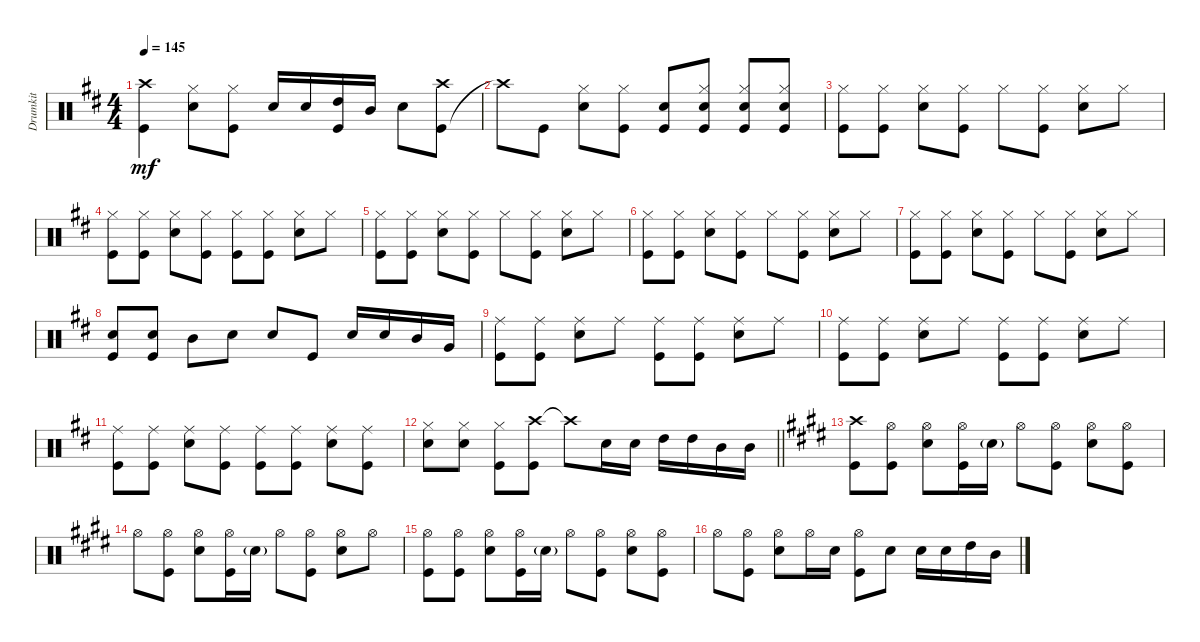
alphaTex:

\track ("Drumkit" "Drumkit") {instrument percussion}
\staff {score}
\articulation defaults
\ts (4 4)
\tempo 145
\clef neutral
\ks d
("Crash high (hit)" "Kick (hit)").4{dy mf} ("Hi-Hat (closed)" "Snare (hit) 2").8 ("Hi-Hat (closed)" "Kick (hit)").8 "Snare (hit) 2".16 "Snare (hit) 2".16 ("High Tom (hit)" "Kick (hit)").16 "Mid Tom (hit)".16 "Snare (hit) 2".8 ("Kick (hit)" "Crash high (hit)").8 |
"Crash high (hit)"{t}.8 "Kick (hit)".8 ("Snare (hit) 2" "Hi-Hat (closed)").8 ("Hi-Hat (closed)" "Kick (hit)").8 ("Kick (hit)" "Snare (hit) 2").8 ("Kick (hit)" "Hi-Hat (closed)" "Snare (hit) 2").8 ("Kick (hit)" "Hi-Hat (closed)" "Snare (hit) 2").8 ("Kick (hit)" "Snare (hit) 2" "Hi-Hat (closed)").8 |
("Hi-Hat (closed)" "Kick (hit)").8 ("Hi-Hat (closed)" "Kick (hit)").8 ("Hi-Hat (closed)" "Snare (hit) 2").8 ("Hi-Hat (closed)" "Kick (hit)").8 "Hi-Hat (closed)".8 ("Hi-Hat (closed)" "Kick (hit)").8 ("Hi-Hat (closed)" "Snare (hit) 2").8 "Hi-Hat (closed)".8 |
("Hi-Hat (closed)" "Kick (hit)").8 ("Hi-Hat (closed)" "Kick (hit)").8 ("Hi-Hat (closed)" "Snare (hit) 2").8 ("Hi-Hat (closed)" "Kick (hit)").8 ("Hi-Hat (closed)" "Kick (hit)").8 ("Hi-Hat (closed)" "Kick (hit)").8 ("Hi-Hat (closed)" "Snare (hit) 2").8 "Hi-Hat (closed)".8 |
("Hi-Hat (closed)" "Kick (hit)").8 ("Hi-Hat (closed)" "Kick (hit)").8 ("Hi-Hat (closed)" "Snare (hit) 2").8 ("Hi-Hat (closed)" "Kick (hit)").8 "Hi-Hat (closed)".8 ("Hi-Hat (closed)" "Kick (hit)").8 ("Hi-Hat (closed)" "Snare (hit) 2").8 "Hi-Hat (closed)".8 |
("Hi-Hat (closed)" "Kick (hit)").8 ("Hi-Hat (closed)" "Kick (hit)").8 ("Hi-Hat (closed)" "Snare (hit) 2").8 ("Hi-Hat (closed)" "Kick (hit)").8 "Hi-Hat (closed)".8 ("Hi-Hat (closed)" "Kick (hit)").8 ("Hi-Hat (closed)" "Snare (hit) 2").8 "Hi-Hat (closed)".8 |
("Hi-Hat (closed)" "Kick (hit)").8 ("Hi-Hat (closed)" "Kick (hit)").8 ("Hi-Hat (closed)" "Snare (hit) 2").8 ("Hi-Hat (closed)" "Kick (hit)").8 "Hi-Hat (closed)".8 ("Hi-Hat (closed)" "Kick (hit)").8 ("Hi-Hat (closed)" "Snare (hit) 2").8 "Hi-Hat (closed)".8 |
("Snare (hit) 2" "Kick (hit)").8 ("Snare (hit) 2" "Kick (hit)").8 "Mid Tom (hit)".8 "Snare (hit) 2".8 "Snare (hit) 2".8 "Kick (hit)".8 "Snare (hit) 2".16 "Snare (hit) 2".16 "Mid Tom (hit)".16 "Very Low Tom (hit)".16 |
("Kick (hit)" "Ride (middle)").8 ("Kick (hit)" "Ride (middle)").8 ("Snare (hit) 2" "Ride (middle)").8 "Ride (middle)".8 ("Kick (hit)" "Ride (middle)").8 ("Kick (hit)" "Ride (middle)").8 ("Snare (hit) 2" "Ride (middle)").8 "Ride (middle)".8 |
("Kick (hit)" "Ride (middle)").8 ("Kick (hit)" "Ride (middle)").8 ("Snare (hit) 2" "Ride (middle)").8 "Ride (middle)".8 ("Kick (hit)" "Ride (middle)").8 ("Kick (hit)" "Ride (middle)").8 ("Snare (hit) 2" "Ride (middle)").8 "Ride (middle)".8 |
("Kick (hit)" "Ride (middle)").8 ("Kick (hit)" "Ride (middle)").8 ("Snare (hit) 2" "Ride (middle)").8 ("Ride (middle)" "Kick (hit)").8 ("Kick (hit)" "Ride (middle)").8 ("Kick (hit)" "Ride (middle)").8 ("Snare (hit) 2" "Ride (middle)").8 ("Ride (middle)" "Kick (hit)").8 |
\barLineRight lightlight
("Snare (hit) 2" "Hi-Hat (closed)").8 ("Snare (hit) 2" "Hi-Hat (closed)").8 ("Hi-Hat (closed)" "Kick (hit)").8 ("Crash high (hit)" "Kick (hit)").8 "Crash high (hit)"{t}.8 "Snare (hit) 2".16 "Snare (hit) 2".16 "High Tom (hit)".16 "High Tom (hit)".16 "Mid Tom (hit)".16 "Mid Tom (hit)".16 |
\ks e
("Kick (hit)" "Crash high (hit)").8 ("Hi-Hat (open)" "Kick (hit)").8 ("Hi-Hat (open)" "Snare (hit) 2").8 ("Hi-Hat (open)" "Kick (hit)").16 "Snare (hit) 2"{g}.16 "Hi-Hat (open)".8 ("Hi-Hat (open)" "Kick (hit)").8 ("Hi-Hat (open)" "Snare (hit) 2").8 ("Hi-Hat (open)" "Kick (hit)").8 |
"Hi-Hat (open)".8 ("Hi-Hat (open)" "Kick (hit)").8 ("Hi-Hat (open)" "Snare (hit) 2").8 ("Hi-Hat (open)" "Kick (hit)").16 "Snare (hit) 2"{g}.16 "Hi-Hat (open)".8 ("Hi-Hat (open)" "Kick (hit)").8 ("Hi-Hat (open)" "Snare (hit) 2").8 "Hi-Hat (open)".8 |
("Kick (hit)" "Hi-Hat (open)").8 ("Hi-Hat (open)" "Kick (hit)").8 ("Hi-Hat (open)" "Snare (hit) 2").8 ("Hi-Hat (open)" "Kick (hit)").16 "Snare (hit) 2"{g}.16 "Hi-Hat (open)".8 ("Hi-Hat (open)" "Kick (hit)").8 ("Hi-Hat (open)" "Snare (hit) 2").8 ("Hi-Hat (open)" "Kick (hit)").8 |
"Hi-Hat (open)".8 ("Hi-Hat (open)" "Kick (hit)").8 ("Hi-Hat (open)" "Snare (hit) 2").8 "Hi-Hat (open)".16 "Snare (hit) 2".16 ("Hi-Hat (open)" "Kick (hit)").8 "Snare (hit) 2".8 "Snare (hit) 2".16 "Snare (hit) 2".16 "High Tom (hit)".16 "Mid Tom (hit)".16
